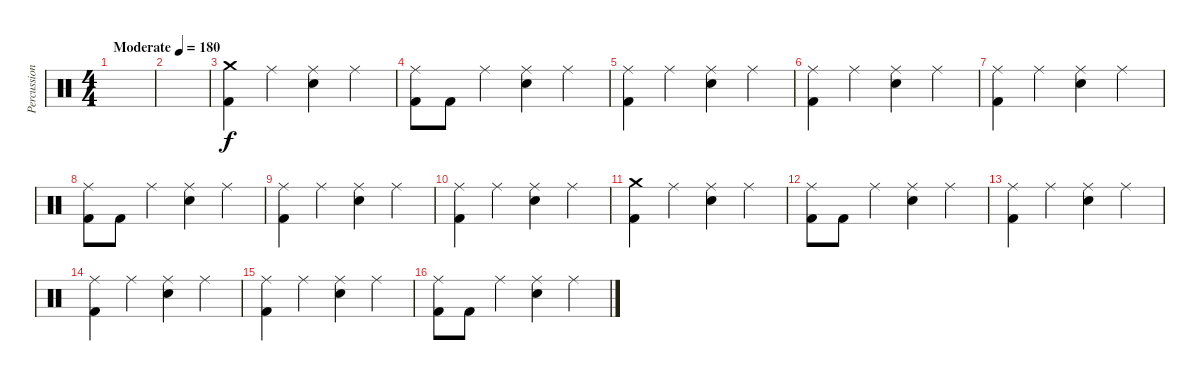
\track ("Percussion" "Percussion") {instrument percussion}
\staff {score}
\articulation defaults
\ts (4 4)
\tempo (180 "Moderate")
\clef neutral
\ks c
|
|
("Crash medium (hit)" "Kick (hit) 2").4 "Ride (middle)".4 ("Ride (middle)" "Electric Snare (hit)").4 "Ride (middle)".4 |
("Ride (middle)" "Kick (hit) 2").8 "Kick (hit) 2".8 "Ride (middle)".4 ("Ride (middle)" "Electric Snare (hit)").4 "Ride (middle)".4 |
("Ride (middle)" "Kick (hit) 2").4 "Ride (middle)".4 ("Ride (middle)" "Electric Snare (hit)").4 "Ride (middle)".4 |
("Ride (middle)" "Kick (hit) 2").4 "Ride (middle)".4 ("Ride (middle)" "Electric Snare (hit)").4 "Ride (middle)".4 |
("Ride (middle)" "Kick (hit) 2").4 "Ride (middle)".4 ("Ride (middle)" "Electric Snare (hit)").4 "Ride (middle)".4 |
("Ride (middle)" "Kick (hit) 2").8 "Kick (hit) 2".8 "Ride (middle)".4 ("Ride (middle)" "Electric Snare (hit)").4 "Ride (middle)".4 |
("Ride (middle)" "Kick (hit) 2").4 "Ride (middle)".4 ("Ride (middle)" "Electric Snare (hit)").4 "Ride (middle)".4 |
("Ride (middle)" "Kick (hit) 2").4 "Ride (middle)".4 ("Ride (middle)" "Electric Snare (hit)").4 "Ride (middle)".4 |
("Crash medium (hit)" "Kick (hit) 2").4 "Ride (middle)".4 ("Ride (middle)" "Electric Snare (hit)").4 "Ride (middle)".4 |
("Ride (middle)" "Kick (hit) 2").8 "Kick (hit) 2".8 "Ride (middle)".4 ("Ride (middle)" "Electric Snare (hit)").4 "Ride (middle)".4 |
("Ride (middle)" "Kick (hit) 2").4 "Ride (middle)".4 ("Ride (middle)" "Electric Snare (hit)").4 "Ride (middle)".4 |
("Ride (middle)" "Kick (hit) 2").4 "Ride (middle)".4 ("Ride (middle)" "Electric Snare (hit)").4 "Ride (middle)".4 |
("Ride (middle)" "Kick (hit) 2").4 "Ride (middle)".4 ("Ride (middle)" "Electric Snare (hit)").4 "Ride (middle)".4 |
("Ride (middle)" "Kick (hit) 2").8 "Kick (hit) 2".8 "Ride (middle)".4 ("Ride (middle)" "Electric Snare (hit)").4 "Ride (middle)".4
